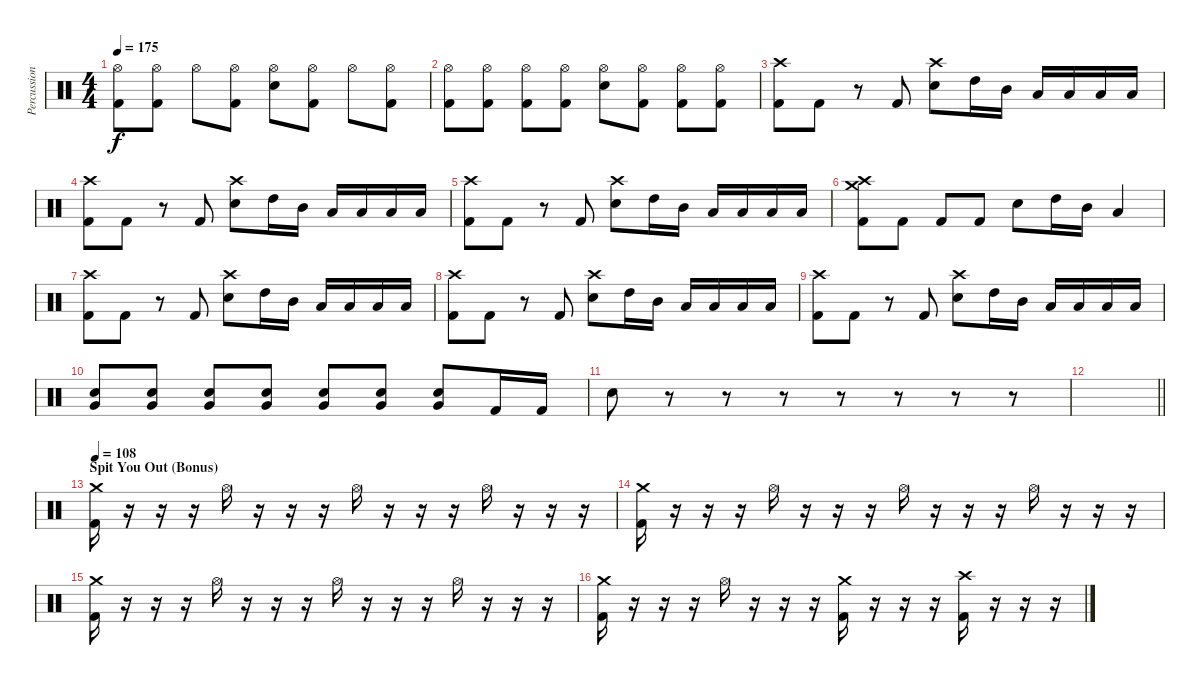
\track ("Percussion (Moose)" "Percussion") {instrument percussion}
\staff {score}
\articulation defaults
\ts (4 4)
\tempo 175
\clef neutral
\ks c
("Hi-Hat (open)" "Kick (hit) 2").8{dy f} ("Hi-Hat (open)" "Kick (hit) 2").8 "Hi-Hat (open)".8 ("Hi-Hat (open)" "Kick (hit) 2").8 ("Hi-Hat (open)" "Electric Snare (hit)").8 ("Hi-Hat (open)" "Kick (hit) 2").8 "Hi-Hat (open)".8 ("Hi-Hat (open)" "Kick (hit) 2").8 |
("Hi-Hat (open)" "Kick (hit) 2").8 ("Hi-Hat (open)" "Kick (hit) 2").8 ("Hi-Hat (open)" "Kick (hit) 2").8 ("Hi-Hat (open)" "Kick (hit) 2").8 ("Hi-Hat (open)" "Electric Snare (hit)").8 ("Hi-Hat (open)" "Kick (hit) 2").8 ("Hi-Hat (open)" "Kick (hit) 2").8 ("Hi-Hat (open)" "Kick (hit) 2").8 |
("Crash high (hit)" "Kick (hit) 2").8 "Kick (hit) 2".8 r.8 "Kick (hit) 2".8 ("Crash high (hit)" "Electric Snare (hit)").8 "High Tom (hit)".16 "Mid Tom (hit)".16 "Low Tom (hit)".16 "Low Tom (hit)".16 "Low Tom (hit)".16 "Low Tom (hit)".16 |
("Crash high (hit)" "Kick (hit) 2").8 "Kick (hit) 2".8 r.8 "Kick (hit) 2".8 ("Crash high (hit)" "Electric Snare (hit)").8 "High Tom (hit)".16 "Mid Tom (hit)".16 "Low Tom (hit)".16 "Low Tom (hit)".16 "Low Tom (hit)".16 "Low Tom (hit)".16 |
("Crash high (hit)" "Kick (hit) 2").8 "Kick (hit) 2".8 r.8 "Kick (hit) 2".8 ("Crash high (hit)" "Electric Snare (hit)").8 "High Tom (hit)".16 "Mid Tom (hit)".16 "Low Tom (hit)".16 "Low Tom (hit)".16 "Low Tom (hit)".16 "Low Tom (hit)".16 |
("Crash high (hit)" "Crash medium (hit)" "Kick (hit) 2").8 "Kick (hit) 2".8 "Kick (hit) 2".8 "Kick (hit) 2".8 "Electric Snare (hit)".8 "High Tom (hit)".16 "Mid Tom (hit)".16 "Low Tom (hit)".4 |
("Crash high (hit)" "Kick (hit) 2").8 "Kick (hit) 2".8 r.8 "Kick (hit) 2".8 ("Crash high (hit)" "Electric Snare (hit)").8 "High Tom (hit)".16 "Mid Tom (hit)".16 "Low Tom (hit)".16 "Low Tom (hit)".16 "Low Tom (hit)".16 "Low Tom (hit)".16 |
("Crash high (hit)" "Kick (hit) 2").8 "Kick (hit) 2".8 r.8 "Kick (hit) 2".8 ("Crash high (hit)" "Electric Snare (hit)").8 "High Tom (hit)".16 "Mid Tom (hit)".16 "Low Tom (hit)".16 "Low Tom (hit)".16 "Low Tom (hit)".16 "Low Tom (hit)".16 |
("Crash high (hit)" "Kick (hit) 2").8 "Kick (hit) 2".8 r.8 "Kick (hit) 2".8 ("Crash high (hit)" "Electric Snare (hit)").8 "High Tom (hit)".16 "Mid Tom (hit)".16 "Low Tom (hit)".16 "Low Tom (hit)".16 "Low Tom (hit)".16 "Low Tom (hit)".16 |
("Very Low Tom (hit)" "Electric Snare (hit)").8 ("Very Low Tom (hit)" "Electric Snare (hit)").8 ("Very Low Tom (hit)" "Electric Snare (hit)").8 ("Very Low Tom (hit)" "Electric Snare (hit)").8 ("Very Low Tom (hit)" "Electric Snare (hit)").8 ("Very Low Tom (hit)" "Electric Snare (hit)").8 ("Very Low Tom (hit)" "Electric Snare (hit)").8 "Kick (hit) 2".16 "Kick (hit) 2".16 |
"Electric Snare (hit)".8 r.8 r.8 r.8 r.8 r.8 r.8 r.8 |
\barLineRight lightlight
|
\section ("" "Spit You Out (Bonus)")
\tempo 108
("Crash medium (hit)" "Kick (hit) 2").16 r.16 r.16 r.16 "Hi-Hat (open)".16 r.16 r.16 r.16 "Hi-Hat (open)".16 r.16 r.16 r.16 "Hi-Hat (open)".16 r.16 r.16 r.16 |
("Crash medium (hit)" "Kick (hit) 2").16 r.16 r.16 r.16 "Hi-Hat (open)".16 r.16 r.16 r.16 "Hi-Hat (open)".16 r.16 r.16 r.16 "Hi-Hat (open)".16 r.16 r.16 r.16 |
("Crash medium (hit)" "Kick (hit) 2").16 r.16 r.16 r.16 "Hi-Hat (open)".16 r.16 r.16 r.16 "Hi-Hat (open)".16 r.16 r.16 r.16 "Hi-Hat (open)".16 r.16 r.16 r.16 |
("Crash medium (hit)" "Kick (hit) 2").16 r.16 r.16 r.16 "Hi-Hat (open)".16 r.16 r.16 r.16 ("Crash medium (hit)" "Kick (hit) 2").16 r.16 r.16 r.16 ("Crash high (hit)" "Kick (hit) 2").16 r.16 r.16 r.16
